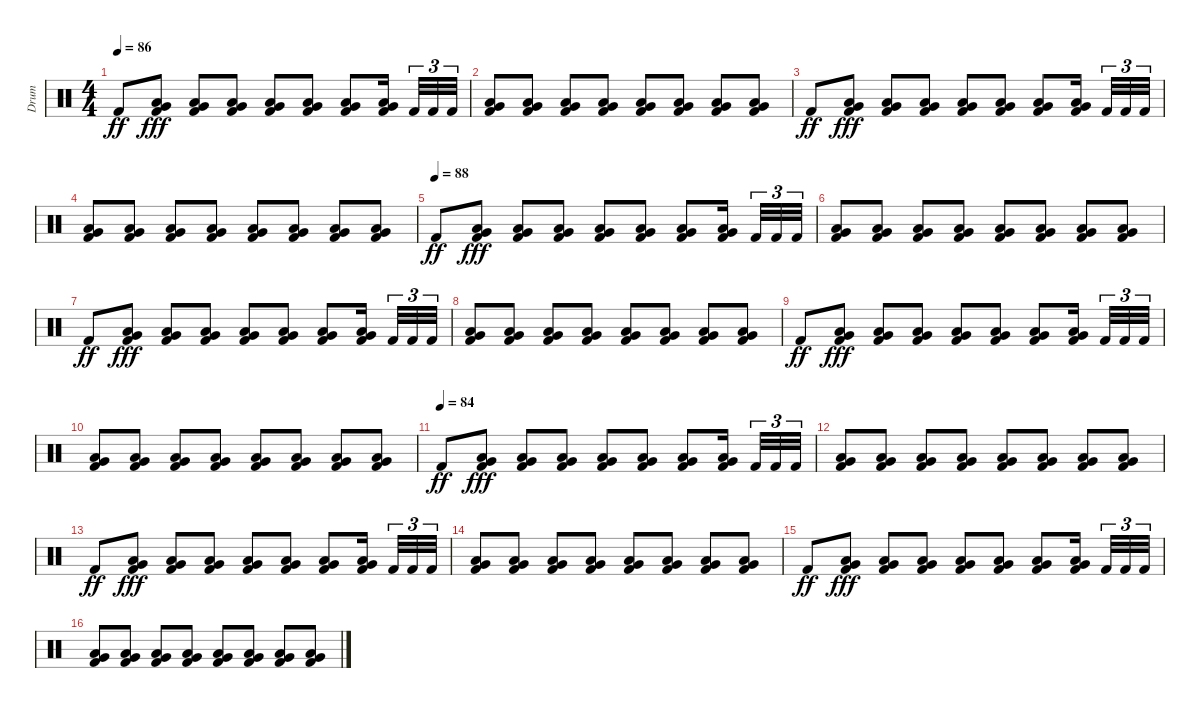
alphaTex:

\track ("Drum" "Drum") {instrument percussion}
\staff {score}
\articulation defaults
\ts (4 4)
\tempo 86
\clef neutral
\ks c "Kick (hit) 2".8{dy ff}
("Low Tom (hit)" "Very Low Tom (hit)" "Kick (hit) 2").8{dy fff} ("Low Tom (hit)" "Very Low Tom (hit)" "Kick (hit) 2").8 ("Low Tom (hit)" "Very Low Tom (hit)" "Kick (hit) 2").8 ("Low Tom (hit)" "Very Low Tom (hit)" "Kick (hit) 2").8 ("Low Tom (hit)" "Very Low Tom (hit)" "Kick (hit) 2").8 ("Low Tom (hit)" "Very Low Tom (hit)" "Kick (hit) 2").8 ("Low Tom (hit)" "Very Low Tom (hit)" "Kick (hit) 2").16{beam splitsecondary} "Kick (hit) 2".32{tu (3 2)} "Kick (hit) 2".32{tu (3 2)} "Kick (hit) 2".32{tu (3 2)} |
("Low Tom (hit)" "Very Low Tom (hit)" "Kick (hit) 2").8 ("Low Tom (hit)" "Very Low Tom (hit)" "Kick (hit) 2").8 ("Low Tom (hit)" "Very Low Tom (hit)" "Kick (hit) 2").8 ("Low Tom (hit)" "Very Low Tom (hit)" "Kick (hit) 2").8 ("Low Tom (hit)" "Very Low Tom (hit)" "Kick (hit) 2").8 ("Low Tom (hit)" "Very Low Tom (hit)" "Kick (hit) 2").8 ("Low Tom (hit)" "Very Low Tom (hit)" "Kick (hit) 2").8 ("Low Tom (hit)" "Very Low Tom (hit)" "Kick (hit) 2").8 |
"Kick (hit) 2".8{dy ff} ("Low Tom (hit)" "Very Low Tom (hit)" "Kick (hit) 2").8{dy fff} ("Low Tom (hit)" "Very Low Tom (hit)" "Kick (hit) 2").8 ("Low Tom (hit)" "Very Low Tom (hit)" "Kick (hit) 2").8 ("Low Tom (hit)" "Very Low Tom (hit)" "Kick (hit) 2").8 ("Low Tom (hit)" "Very Low Tom (hit)" "Kick (hit) 2").8 ("Low Tom (hit)" "Very Low Tom (hit)" "Kick (hit) 2").8 ("Low Tom (hit)" "Very Low Tom (hit)" "Kick (hit) 2").16{beam splitsecondary} "Kick (hit) 2".32{tu (3 2)} "Kick (hit) 2".32{tu (3 2)} "Kick (hit) 2".32{tu (3 2)} |
("Low Tom (hit)" "Very Low Tom (hit)" "Kick (hit) 2").8 ("Low Tom (hit)" "Very Low Tom (hit)" "Kick (hit) 2").8 ("Low Tom (hit)" "Very Low Tom (hit)" "Kick (hit) 2").8 ("Low Tom (hit)" "Very Low Tom (hit)" "Kick (hit) 2").8 ("Low Tom (hit)" "Very Low Tom (hit)" "Kick (hit) 2").8 ("Low Tom (hit)" "Very Low Tom (hit)" "Kick (hit) 2").8 ("Low Tom (hit)" "Very Low Tom (hit)" "Kick (hit) 2").8 ("Low Tom (hit)" "Very Low Tom (hit)" "Kick (hit) 2").8 |
\tempo (88)
"Kick (hit) 2".8{dy ff} ("Low Tom (hit)" "Very Low Tom (hit)" "Kick (hit) 2").8{dy fff} ("Low Tom (hit)" "Very Low Tom (hit)" "Kick (hit) 2").8 ("Low Tom (hit)" "Very Low Tom (hit)" "Kick (hit) 2").8 ("Low Tom (hit)" "Very Low Tom (hit)" "Kick (hit) 2").8 ("Low Tom (hit)" "Very Low Tom (hit)" "Kick (hit) 2").8 ("Low Tom (hit)" "Very Low Tom (hit)" "Kick (hit) 2").8 ("Low Tom (hit)" "Very Low Tom (hit)" "Kick (hit) 2").16{beam splitsecondary} "Kick (hit) 2".32{tu (3 2)} "Kick (hit) 2".32{tu (3 2)} "Kick (hit) 2".32{tu (3 2)} |
("Low Tom (hit)" "Very Low Tom (hit)" "Kick (hit) 2").8 ("Low Tom (hit)" "Very Low Tom (hit)" "Kick (hit) 2").8 ("Low Tom (hit)" "Very Low Tom (hit)" "Kick (hit) 2").8 ("Low Tom (hit)" "Very Low Tom (hit)" "Kick (hit) 2").8 ("Low Tom (hit)" "Very Low Tom (hit)" "Kick (hit) 2").8 ("Low Tom (hit)" "Very Low Tom (hit)" "Kick (hit) 2").8 ("Low Tom (hit)" "Very Low Tom (hit)" "Kick (hit) 2").8 ("Low Tom (hit)" "Very Low Tom (hit)" "Kick (hit) 2").8 |
"Kick (hit) 2".8{dy ff} ("Low Tom (hit)" "Very Low Tom (hit)" "Kick (hit) 2").8{dy fff} ("Low Tom (hit)" "Very Low Tom (hit)" "Kick (hit) 2").8 ("Low Tom (hit)" "Very Low Tom (hit)" "Kick (hit) 2").8 ("Low Tom (hit)" "Very Low Tom (hit)" "Kick (hit) 2").8 ("Low Tom (hit)" "Very Low Tom (hit)" "Kick (hit) 2").8 ("Low Tom (hit)" "Very Low Tom (hit)" "Kick (hit) 2").8 ("Low Tom (hit)" "Very Low Tom (hit)" "Kick (hit) 2").16{beam splitsecondary} "Kick (hit) 2".32{tu (3 2)} "Kick (hit) 2".32{tu (3 2)} "Kick (hit) 2".32{tu (3 2)} |
("Low Tom (hit)" "Very Low Tom (hit)" "Kick (hit) 2").8 ("Low Tom (hit)" "Very Low Tom (hit)" "Kick (hit) 2").8 ("Low Tom (hit)" "Very Low Tom (hit)" "Kick (hit) 2").8 ("Low Tom (hit)" "Very Low Tom (hit)" "Kick (hit) 2").8 ("Low Tom (hit)" "Very Low Tom (hit)" "Kick (hit) 2").8 ("Low Tom (hit)" "Very Low Tom (hit)" "Kick (hit) 2").8 ("Low Tom (hit)" "Very Low Tom (hit)" "Kick (hit) 2").8 ("Low Tom (hit)" "Very Low Tom (hit)" "Kick (hit) 2").8 |
"Kick (hit) 2".8{dy ff} ("Low Tom (hit)" "Very Low Tom (hit)" "Kick (hit) 2").8{dy fff} ("Low Tom (hit)" "Very Low Tom (hit)" "Kick (hit) 2").8 ("Low Tom (hit)" "Very Low Tom (hit)" "Kick (hit) 2").8 ("Low Tom (hit)" "Very Low Tom (hit)" "Kick (hit) 2").8 ("Low Tom (hit)" "Very Low Tom (hit)" "Kick (hit) 2").8 ("Low Tom (hit)" "Very Low Tom (hit)" "Kick (hit) 2").8 ("Low Tom (hit)" "Very Low Tom (hit)" "Kick (hit) 2").16{beam splitsecondary} "Kick (hit) 2".32{tu (3 2)} "Kick (hit) 2".32{tu (3 2)} "Kick (hit) 2".32{tu (3 2)} |
("Low Tom (hit)" "Very Low Tom (hit)" "Kick (hit) 2").8 ("Low Tom (hit)" "Very Low Tom (hit)" "Kick (hit) 2").8 ("Low Tom (hit)" "Very Low Tom (hit)" "Kick (hit) 2").8 ("Low Tom (hit)" "Very Low Tom (hit)" "Kick (hit) 2").8 ("Low Tom (hit)" "Very Low Tom (hit)" "Kick (hit) 2").8 ("Low Tom (hit)" "Very Low Tom (hit)" "Kick (hit) 2").8 ("Low Tom (hit)" "Very Low Tom (hit)" "Kick (hit) 2").8 ("Low Tom (hit)" "Very Low Tom (hit)" "Kick (hit) 2").8 |
\tempo (84)
"Kick (hit) 2".8{dy ff volume 6} ("Low Tom (hit)" "Very Low Tom (hit)" "Kick (hit) 2").8{dy fff} ("Low Tom (hit)" "Very Low Tom (hit)" "Kick (hit) 2").8 ("Low Tom (hit)" "Very Low Tom (hit)" "Kick (hit) 2").8 ("Low Tom (hit)" "Very Low Tom (hit)" "Kick (hit) 2").8 ("Low Tom (hit)" "Very Low Tom (hit)" "Kick (hit) 2").8 ("Low Tom (hit)" "Very Low Tom (hit)" "Kick (hit) 2").8 ("Low Tom (hit)" "Very Low Tom (hit)" "Kick (hit) 2").16{beam splitsecondary} "Kick (hit) 2".32{tu (3 2)} "Kick (hit) 2".32{tu (3 2)} "Kick (hit) 2".32{tu (3 2)} |
("Low Tom (hit)" "Very Low Tom (hit)" "Kick (hit) 2").8 ("Low Tom (hit)" "Very Low Tom (hit)" "Kick (hit) 2").8 ("Low Tom (hit)" "Very Low Tom (hit)" "Kick (hit) 2").8 ("Low Tom (hit)" "Very Low Tom (hit)" "Kick (hit) 2").8 ("Low Tom (hit)" "Very Low Tom (hit)" "Kick (hit) 2").8 ("Low Tom (hit)" "Very Low Tom (hit)" "Kick (hit) 2").8 ("Low Tom (hit)" "Very Low Tom (hit)" "Kick (hit) 2").8 ("Low Tom (hit)" "Very Low Tom (hit)" "Kick (hit) 2").8 |
"Kick (hit) 2".8{dy ff} ("Low Tom (hit)" "Very Low Tom (hit)" "Kick (hit) 2").8{dy fff} ("Low Tom (hit)" "Very Low Tom (hit)" "Kick (hit) 2").8 ("Low Tom (hit)" "Very Low Tom (hit)" "Kick (hit) 2").8 ("Low Tom (hit)" "Very Low Tom (hit)" "Kick (hit) 2").8 ("Low Tom (hit)" "Very Low Tom (hit)" "Kick (hit) 2").8 ("Low Tom (hit)" "Very Low Tom (hit)" "Kick (hit) 2").8 ("Low Tom (hit)" "Very Low Tom (hit)" "Kick (hit) 2").16{beam splitsecondary} "Kick (hit) 2".32{tu (3 2)} "Kick (hit) 2".32{tu (3 2)} "Kick (hit) 2".32{tu (3 2)} |
("Low Tom (hit)" "Very Low Tom (hit)" "Kick (hit) 2").8{volume 0} ("Low Tom (hit)" "Very Low Tom (hit)" "Kick (hit) 2").8 ("Low Tom (hit)" "Very Low Tom (hit)" "Kick (hit) 2").8 ("Low Tom (hit)" "Very Low Tom (hit)" "Kick (hit) 2").8 ("Low Tom (hit)" "Very Low Tom (hit)" "Kick (hit) 2").8 ("Low Tom (hit)" "Very Low Tom (hit)" "Kick (hit) 2").8 ("Low Tom (hit)" "Very Low Tom (hit)" "Kick (hit) 2").8 ("Low Tom (hit)" "Very Low Tom (hit)" "Kick (hit) 2").8 |
"Kick (hit) 2".8{dy ff} ("Low Tom (hit)" "Very Low Tom (hit)" "Kick (hit) 2").8{dy fff} ("Low Tom (hit)" "Very Low Tom (hit)" "Kick (hit) 2").8 ("Low Tom (hit)" "Very Low Tom (hit)" "Kick (hit) 2").8 ("Low Tom (hit)" "Very Low Tom (hit)" "Kick (hit) 2").8 ("Low Tom (hit)" "Very Low Tom (hit)" "Kick (hit) 2").8 ("Low Tom (hit)" "Very Low Tom (hit)" "Kick (hit) 2").8 ("Low Tom (hit)" "Very Low Tom (hit)" "Kick (hit) 2").16{beam splitsecondary} "Kick (hit) 2".32{tu (3 2)} "Kick (hit) 2".32{tu (3 2)} "Kick (hit) 2".32{tu (3 2)} |
("Low Tom (hit)" "Very Low Tom (hit)" "Kick (hit) 2").8 ("Low Tom (hit)" "Very Low Tom (hit)" "Kick (hit) 2").8 ("Low Tom (hit)" "Very Low Tom (hit)" "Kick (hit) 2").8 ("Low Tom (hit)" "Very Low Tom (hit)" "Kick (hit) 2").8 ("Low Tom (hit)" "Very Low Tom (hit)" "Kick (hit) 2").8 ("Low Tom (hit)" "Very Low Tom (hit)" "Kick (hit) 2").8 ("Low Tom (hit)" "Very Low Tom (hit)" "Kick (hit) 2").8 ("Low Tom (hit)" "Very Low Tom (hit)" "Kick (hit) 2").8
